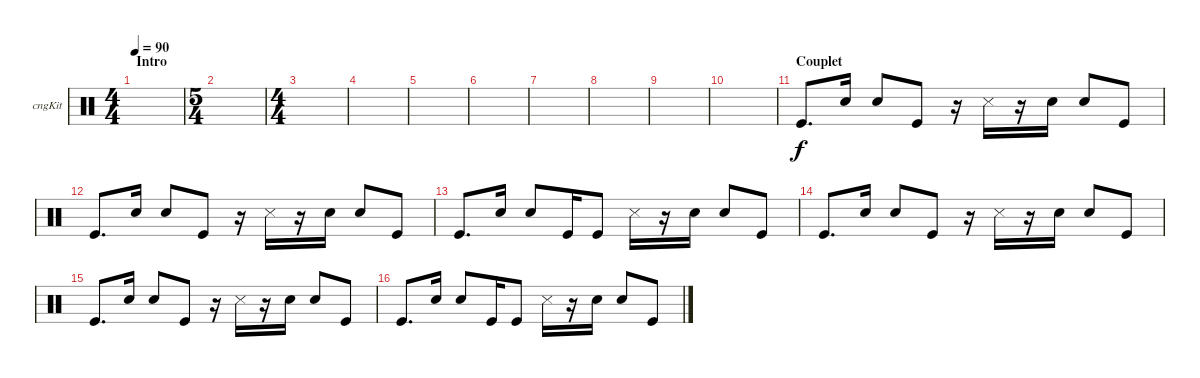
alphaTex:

\defaultSystemsLayout 4
\bracketExtendMode groupsimilarinstruments
\firstSystemTrackNameOrientation horizontal
\otherSystemsTrackNameOrientation horizontal
\track ("Congas" "cngKit") {instrument percussion}
\staff {score}
\articulation defaults
\ts (4 4)
\section ("" "Intro")
\tempo 90
\clef neutral
\scale
0.474178
\ks c
|
\ts (5 4)
\scale
0.262911 |
\ts (4 4)
\scale
0.262911 |
\scale
0.333333 |
\scale
0.333333 |
\scale
0.333333 |
\scale
0.333333 |
\scale
0.333333 |
\scale
0.333333 |
\scale
0.333333 |
\section ("" "Couplet")
\scale
0.333333 "Kick (hit)".8{d} "Snare (hit) 2".16 "Snare (hit) 2".8 "Kick (hit)".8 r.16 "Snare (side stick) 3".16 r.16 "Snare (hit) 2".16 "Snare (hit) 2".8 "Kick (hit)".8 |
\scale
0.333333 "Kick (hit)".8{d} "Snare (hit) 2".16 "Snare (hit) 2".8 "Kick (hit)".8 r.16 "Snare (side stick) 3".16 r.16 "Snare (hit) 2".16 "Snare (hit) 2".8 "Kick (hit)".8 |
\scale
0.333333 "Kick (hit)".8{d} "Snare (hit) 2".16 "Snare (hit) 2".8 "Kick (hit)".16 "Kick (hit)".8 "Snare (side stick) 3".16 r.16 "Snare (hit) 2".16 "Snare (hit) 2".8 "Kick (hit)".8 |
\scale
0.333333 "Kick (hit)".8{d} "Snare (hit) 2".16 "Snare (hit) 2".8 "Kick (hit)".8 r.16 "Snare (side stick) 3".16 r.16 "Snare (hit) 2".16 "Snare (hit) 2".8 "Kick (hit)".8 |
\scale
0.333333 "Kick (hit)".8{d} "Snare (hit) 2".16 "Snare (hit) 2".8 "Kick (hit)".8 r.16 "Snare (side stick) 3".16 r.16 "Snare (hit) 2".16 "Snare (hit) 2".8 "Kick (hit)".8 |
\scale
0.333333 "Kick (hit)".8{d} "Snare (hit) 2".16 "Snare (hit) 2".8 "Kick (hit)".16 "Kick (hit)".8 "Snare (side stick) 3".16 r.16 "Snare (hit) 2".16 "Snare (hit) 2".8 "Kick (hit)".8
